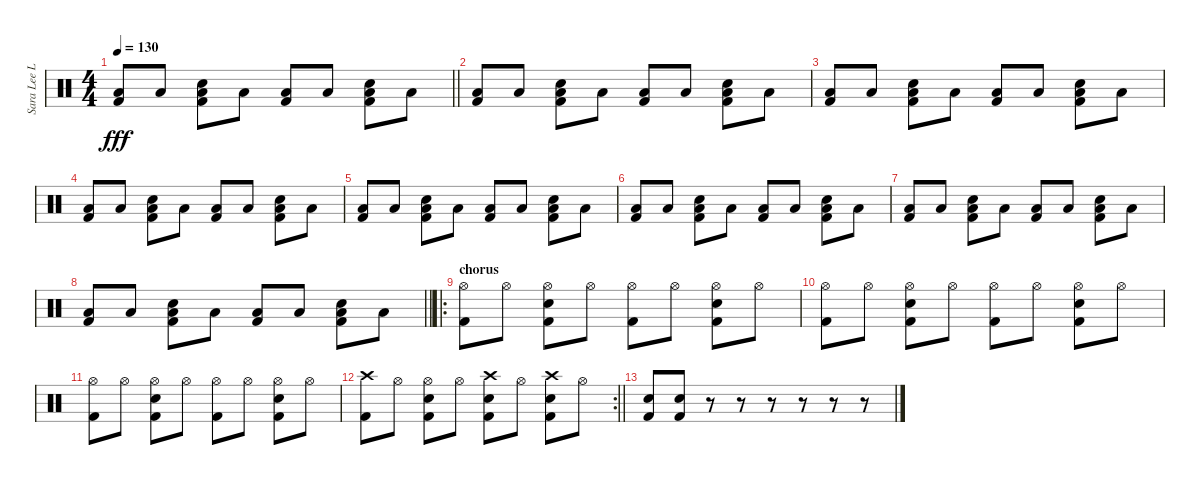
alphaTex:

\track ("Sara Lee Lucas" "Sara Lee L") {instrument percussion}
\staff {score}
\articulation defaults
\ts (4 4)
\tempo 130
\clef neutral
\barLineRight lightlight
\ks c
("Low Tom (hit)" "Kick (hit) 2").8{dy fff} "Low Tom (hit)".8 ("Low Tom (hit)" "Snare (hit) 2" "Kick (hit) 2").8 "Low Tom (hit)".8 ("Low Tom (hit)" "Kick (hit) 2").8 "Low Tom (hit)".8 ("Low Tom (hit)" "Snare (hit) 2" "Kick (hit) 2").8 "Low Tom (hit)".8 |
("Low Tom (hit)" "Kick (hit) 2").8 "Low Tom (hit)".8 ("Low Tom (hit)" "Snare (hit) 2" "Kick (hit) 2").8 "Low Tom (hit)".8 ("Low Tom (hit)" "Kick (hit) 2").8 "Low Tom (hit)".8 ("Low Tom (hit)" "Snare (hit) 2" "Kick (hit) 2").8 "Low Tom (hit)".8 |
("Low Tom (hit)" "Kick (hit) 2").8 "Low Tom (hit)".8 ("Low Tom (hit)" "Snare (hit) 2" "Kick (hit) 2").8 "Low Tom (hit)".8 ("Low Tom (hit)" "Kick (hit) 2").8 "Low Tom (hit)".8 ("Low Tom (hit)" "Snare (hit) 2" "Kick (hit) 2").8 "Low Tom (hit)".8 |
("Low Tom (hit)" "Kick (hit) 2").8 "Low Tom (hit)".8 ("Low Tom (hit)" "Snare (hit) 2" "Kick (hit) 2").8 "Low Tom (hit)".8 ("Low Tom (hit)" "Kick (hit) 2").8 "Low Tom (hit)".8 ("Low Tom (hit)" "Snare (hit) 2" "Kick (hit) 2").8 "Low Tom (hit)".8 |
("Low Tom (hit)" "Kick (hit) 2").8 "Low Tom (hit)".8 ("Low Tom (hit)" "Snare (hit) 2" "Kick (hit) 2").8 "Low Tom (hit)".8 ("Low Tom (hit)" "Kick (hit) 2").8 "Low Tom (hit)".8 ("Low Tom (hit)" "Snare (hit) 2" "Kick (hit) 2").8 "Low Tom (hit)".8 |
("Low Tom (hit)" "Kick (hit) 2").8 "Low Tom (hit)".8 ("Low Tom (hit)" "Snare (hit) 2" "Kick (hit) 2").8 "Low Tom (hit)".8 ("Low Tom (hit)" "Kick (hit) 2").8 "Low Tom (hit)".8 ("Low Tom (hit)" "Snare (hit) 2" "Kick (hit) 2").8 "Low Tom (hit)".8 |
("Low Tom (hit)" "Kick (hit) 2").8 "Low Tom (hit)".8 ("Low Tom (hit)" "Snare (hit) 2" "Kick (hit) 2").8 "Low Tom (hit)".8 ("Low Tom (hit)" "Kick (hit) 2").8 "Low Tom (hit)".8 ("Low Tom (hit)" "Snare (hit) 2" "Kick (hit) 2").8 "Low Tom (hit)".8 |
\barLineRight lightlight
("Low Tom (hit)" "Kick (hit) 2").8 "Low Tom (hit)".8 ("Low Tom (hit)" "Snare (hit) 2" "Kick (hit) 2").8 "Low Tom (hit)".8 ("Low Tom (hit)" "Kick (hit) 2").8 "Low Tom (hit)".8 ("Low Tom (hit)" "Snare (hit) 2" "Kick (hit) 2").8 "Low Tom (hit)".8 |
\ro
\section ("" "chorus")
("Hi-Hat (open)" "Kick (hit) 2").8 "Hi-Hat (open)".8 ("Hi-Hat (open)" "Snare (hit) 2" "Kick (hit) 2").8 "Hi-Hat (open)".8 ("Hi-Hat (open)" "Kick (hit) 2").8 "Hi-Hat (open)".8 ("Hi-Hat (open)" "Snare (hit) 2" "Kick (hit) 2").8 "Hi-Hat (open)".8 |
("Hi-Hat (open)" "Kick (hit) 2").8 "Hi-Hat (open)".8 ("Hi-Hat (open)" "Snare (hit) 2" "Kick (hit) 2").8 "Hi-Hat (open)".8 ("Hi-Hat (open)" "Kick (hit) 2").8 "Hi-Hat (open)".8 ("Hi-Hat (open)" "Snare (hit) 2" "Kick (hit) 2").8 "Hi-Hat (open)".8 |
("Hi-Hat (open)" "Kick (hit) 2").8 "Hi-Hat (open)".8 ("Hi-Hat (open)" "Snare (hit) 2" "Kick (hit) 2").8 "Hi-Hat (open)".8 ("Hi-Hat (open)" "Kick (hit) 2").8 "Hi-Hat (open)".8 ("Hi-Hat (open)" "Snare (hit) 2" "Kick (hit) 2").8 "Hi-Hat (open)".8 |
\rc 2
\barLineRight lightlight
("Crash high (hit)" "Kick (hit) 2").8 "Hi-Hat (open)".8 ("Hi-Hat (open)" "Snare (hit) 2" "Kick (hit) 2").8 "Hi-Hat (open)".8 ("Crash high (hit)" "Snare (hit) 2" "Kick (hit) 2").8 "Hi-Hat (open)".8 ("Crash high (hit)" "Snare (hit) 2" "Kick (hit) 2").8 "Hi-Hat (open)".8 |
("Snare (hit) 2" "Kick (hit) 2").8 ("Snare (hit) 2" "Kick (hit) 2").8 r.8 r.8 r.8 r.8 r.8 r.8
